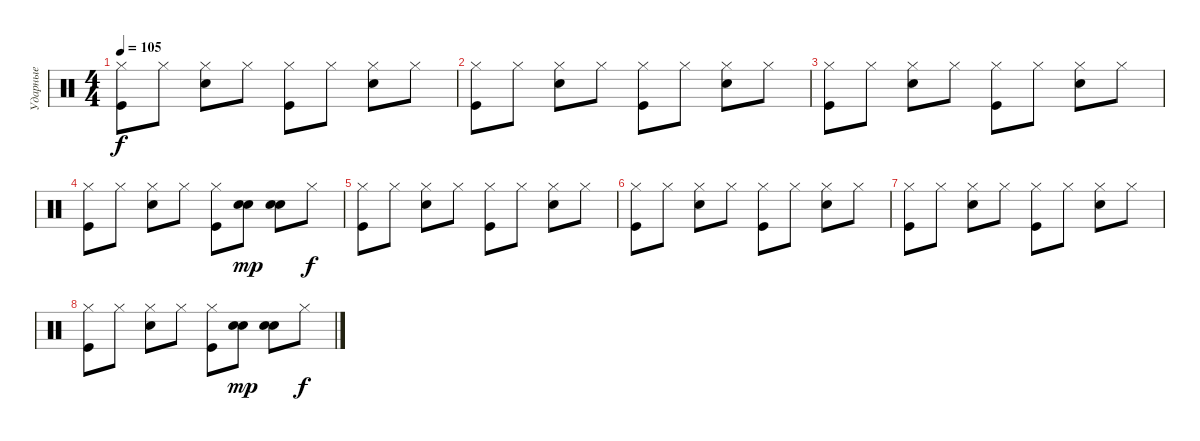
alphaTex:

\track ("Ударные" "Ударные") {instrument percussion}
\staff {score}
\articulation defaults
\ts (4 4)
\tempo 105
\clef neutral
\ks c
("Hi-Hat (closed)" "Kick (hit)").8{dy f} "Hi-Hat (closed)".8 ("Hi-Hat (closed)" "Snare (hit) 2").8 "Hi-Hat (closed)".8 ("Hi-Hat (closed)" "Kick (hit)").8 "Hi-Hat (closed)".8 ("Hi-Hat (closed)" "Snare (hit) 2").8 "Hi-Hat (closed)".8 |
("Hi-Hat (closed)" "Kick (hit)").8 "Hi-Hat (closed)".8 ("Hi-Hat (closed)" "Snare (hit) 2").8 "Hi-Hat (closed)".8 ("Hi-Hat (closed)" "Kick (hit)").8 "Hi-Hat (closed)".8 ("Hi-Hat (closed)" "Snare (hit) 2").8 "Hi-Hat (closed)".8 |
("Hi-Hat (closed)" "Kick (hit)").8 "Hi-Hat (closed)".8 ("Hi-Hat (closed)" "Snare (hit) 2").8 "Hi-Hat (closed)".8 ("Hi-Hat (closed)" "Kick (hit)").8 "Hi-Hat (closed)".8 ("Hi-Hat (closed)" "Snare (hit) 2").8 "Hi-Hat (closed)".8 |
("Hi-Hat (closed)" "Kick (hit)").8 "Hi-Hat (closed)".8 ("Hi-Hat (closed)" "Snare (hit) 2").8 "Hi-Hat (closed)".8 ("Hi-Hat (closed)" "Kick (hit)").8 ("Hand Clap (hit)" "Snare (hit) 2").8{dy mp} ("Hand Clap (hit)" "Snare (hit) 2").8 "Hi-Hat (closed)".8{dy f} |
("Hi-Hat (closed)" "Kick (hit)").8 "Hi-Hat (closed)".8 ("Hi-Hat (closed)" "Snare (hit) 2").8 "Hi-Hat (closed)".8 ("Hi-Hat (closed)" "Kick (hit)").8 "Hi-Hat (closed)".8 ("Hi-Hat (closed)" "Snare (hit) 2").8 "Hi-Hat (closed)".8 |
("Hi-Hat (closed)" "Kick (hit)").8 "Hi-Hat (closed)".8 ("Hi-Hat (closed)" "Snare (hit) 2").8 "Hi-Hat (closed)".8 ("Hi-Hat (closed)" "Kick (hit)").8 "Hi-Hat (closed)".8 ("Hi-Hat (closed)" "Snare (hit) 2").8 "Hi-Hat (closed)".8 |
("Hi-Hat (closed)" "Kick (hit)").8 "Hi-Hat (closed)".8 ("Hi-Hat (closed)" "Snare (hit) 2").8 "Hi-Hat (closed)".8 ("Hi-Hat (closed)" "Kick (hit)").8 "Hi-Hat (closed)".8 ("Hi-Hat (closed)" "Snare (hit) 2").8 "Hi-Hat (closed)".8 |
("Hi-Hat (closed)" "Kick (hit)").8 "Hi-Hat (closed)".8 ("Hi-Hat (closed)" "Snare (hit) 2").8 "Hi-Hat (closed)".8 ("Hi-Hat (closed)" "Kick (hit)").8 ("Hand Clap (hit)" "Snare (hit) 2").8{dy mp} ("Hand Clap (hit)" "Snare (hit) 2").8 "Hi-Hat (closed)".8{dy f}
